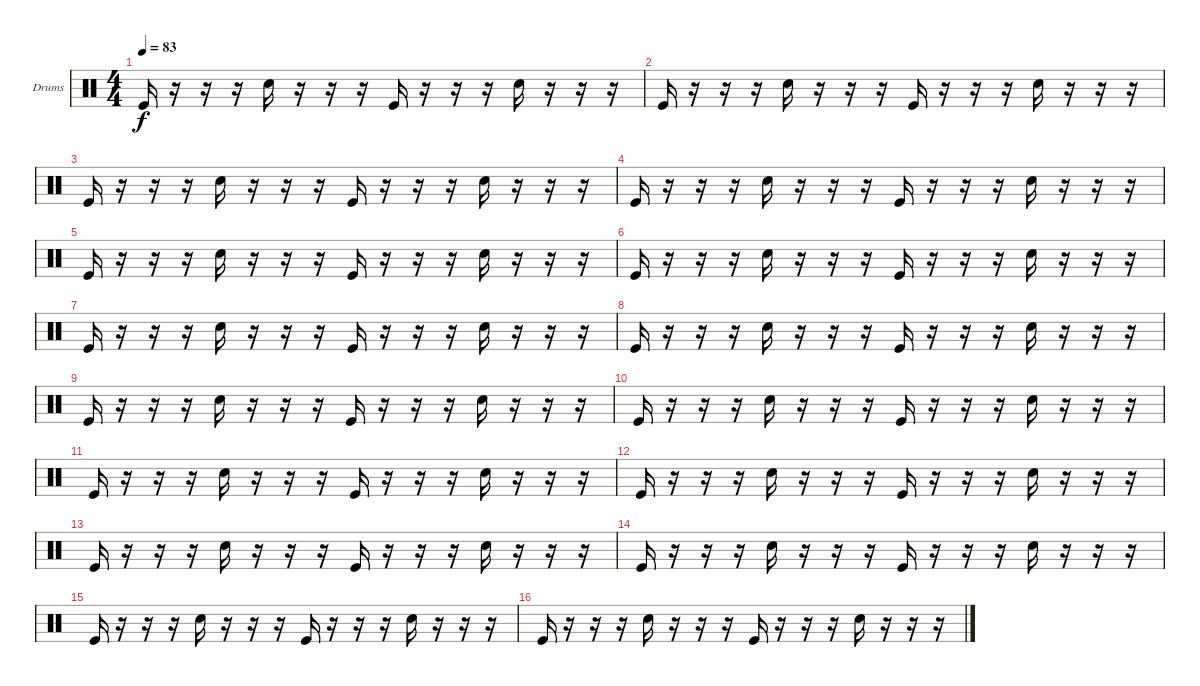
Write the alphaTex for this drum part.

\bracketExtendMode groupsimilarinstruments
\firstSystemTrackNameOrientation horizontal
\otherSystemsTrackNameOrientation horizontal
\track ("Drumkit" "Drums") {instrument percussion}
\staff {score}
\articulation defaults
\ts (4 4)
\tempo 83
\clef neutral
\ks c "Kick (hit)".16{dy f}
r.16 r.16 r.16 "Snare (hit) 2".16 r.16 r.16 r.16 "Kick (hit)".16 r.16 r.16 r.16 "Snare (hit) 2".16 r.16 r.16 r.16 |
"Kick (hit)".16 r.16 r.16 r.16 "Snare (hit) 2".16 r.16 r.16 r.16 "Kick (hit)".16 r.16 r.16 r.16 "Snare (hit) 2".16 r.16 r.16 r.16 |
"Kick (hit)".16 r.16 r.16 r.16 "Snare (hit) 2".16 r.16 r.16 r.16 "Kick (hit)".16 r.16 r.16 r.16 "Snare (hit) 2".16 r.16 r.16 r.16 |
"Kick (hit)".16 r.16 r.16 r.16 "Snare (hit) 2".16 r.16 r.16 r.16 "Kick (hit)".16 r.16 r.16 r.16 "Snare (hit) 2".16 r.16 r.16 r.16 |
"Kick (hit)".16 r.16 r.16 r.16 "Snare (hit) 2".16 r.16 r.16 r.16 "Kick (hit)".16 r.16 r.16 r.16 "Snare (hit) 2".16 r.16 r.16 r.16 |
"Kick (hit)".16 r.16 r.16 r.16 "Snare (hit) 2".16 r.16 r.16 r.16 "Kick (hit)".16 r.16 r.16 r.16 "Snare (hit) 2".16 r.16 r.16 r.16 |
"Kick (hit)".16 r.16 r.16 r.16 "Snare (hit) 2".16 r.16 r.16 r.16 "Kick (hit)".16 r.16 r.16 r.16 "Snare (hit) 2".16 r.16 r.16 r.16 |
"Kick (hit)".16 r.16 r.16 r.16 "Snare (hit) 2".16 r.16 r.16 r.16 "Kick (hit)".16 r.16 r.16 r.16 "Snare (hit) 2".16 r.16 r.16 r.16 |
"Kick (hit)".16 r.16 r.16 r.16 "Snare (hit) 2".16 r.16 r.16 r.16 "Kick (hit)".16 r.16 r.16 r.16 "Snare (hit) 2".16 r.16 r.16 r.16 |
"Kick (hit)".16 r.16 r.16 r.16 "Snare (hit) 2".16 r.16 r.16 r.16 "Kick (hit)".16 r.16 r.16 r.16 "Snare (hit) 2".16 r.16 r.16 r.16 |
"Kick (hit)".16 r.16 r.16 r.16 "Snare (hit) 2".16 r.16 r.16 r.16 "Kick (hit)".16 r.16 r.16 r.16 "Snare (hit) 2".16 r.16 r.16 r.16 |
"Kick (hit)".16 r.16 r.16 r.16 "Snare (hit) 2".16 r.16 r.16 r.16 "Kick (hit)".16 r.16 r.16 r.16 "Snare (hit) 2".16 r.16 r.16 r.16 |
"Kick (hit)".16 r.16 r.16 r.16 "Snare (hit) 2".16 r.16 r.16 r.16 "Kick (hit)".16 r.16 r.16 r.16 "Snare (hit) 2".16 r.16 r.16 r.16 |
"Kick (hit)".16 r.16 r.16 r.16 "Snare (hit) 2".16 r.16 r.16 r.16 "Kick (hit)".16 r.16 r.16 r.16 "Snare (hit) 2".16 r.16 r.16 r.16 |
"Kick (hit)".16 r.16 r.16 r.16 "Snare (hit) 2".16 r.16 r.16 r.16 "Kick (hit)".16 r.16 r.16 r.16 "Snare (hit) 2".16 r.16 r.16 r.16 |
"Kick (hit)".16 r.16 r.16 r.16 "Snare (hit) 2".16 r.16 r.16 r.16 "Kick (hit)".16 r.16 r.16 r.16 "Snare (hit) 2".16 r.16 r.16 r.16
